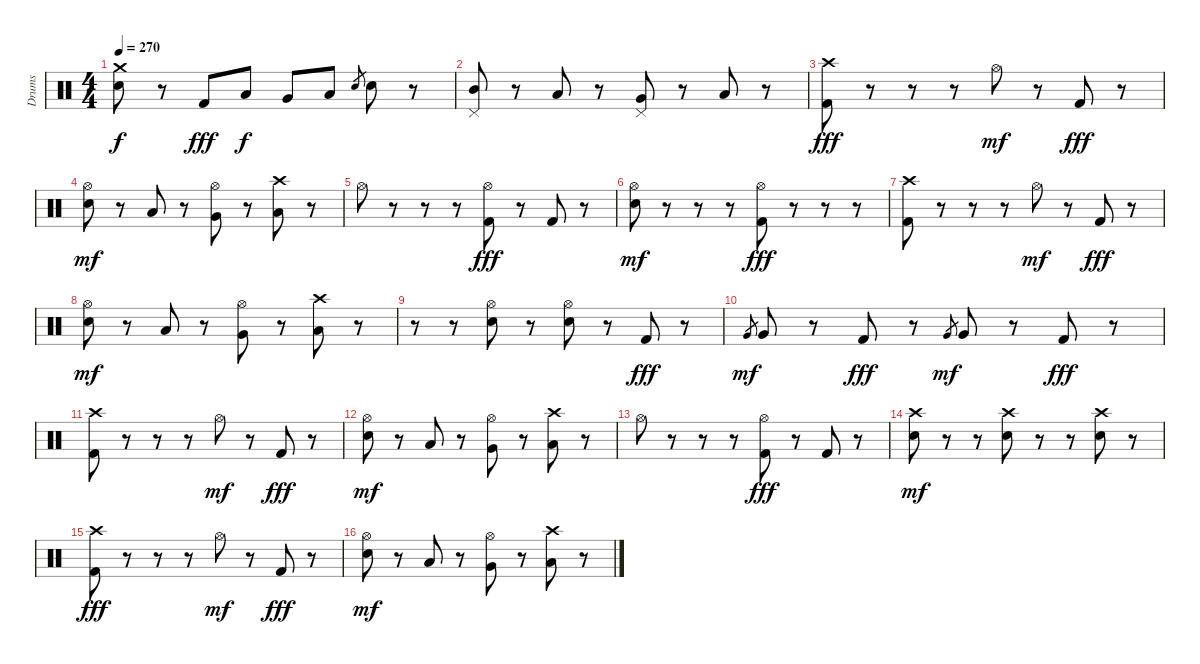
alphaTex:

\track ("Drums" "Drums") {instrument percussion}
\staff {score}
\articulation defaults
\ts (4 4)
\tempo 270
\clef neutral
\ks c
("Crash medium (hit)" "Electric Snare (hit)").8{dy f} r.8 "Kick (hit) 2".8{dy fff} "Low Tom (hit)".8{dy f} "Very Low Tom (hit)".8 "Low Floor Tom (hit)".8 "Electric Snare (hit)".8{gr} "Electric Snare (hit)".8 r.8 |
("Pedal Hi-Hat (hit)" "Mid Tom (hit)").8 r.8 "Low Tom (hit)".8 r.8 ("Pedal Hi-Hat (hit)" "Very Low Tom (hit)").8 r.8 "Low Floor Tom (hit)".8 r.8 |
("Crash high (hit)" "Kick (hit) 2").8{dy fff} r.8 r.8 r.8 "Hi-Hat (open)".8{dy mf} r.8 "Kick (hit) 2".8{dy fff} r.8 |
("Hi-Hat (open)" "Electric Snare (hit)").8{dy mf} r.8 "Low Tom (hit)".8 r.8 ("Hi-Hat (open)" "Very Low Tom (hit)").8 r.8 ("Crash high (hit)" "Low Floor Tom (hit)").8 r.8 |
"Hi-Hat (open)".8 r.8 r.8 r.8 ("Hi-Hat (open)" "Kick (hit) 2").8{dy fff} r.8 "Kick (hit) 2".8 r.8 |
("Hi-Hat (open)" "Electric Snare (hit)").8{dy mf} r.8 r.8 r.8 ("Hi-Hat (open)" "Kick (hit) 2").8{dy fff} r.8 r.8 r.8 |
("Crash high (hit)" "Kick (hit) 2").8 r.8 r.8 r.8 "Hi-Hat (open)".8{dy mf} r.8 "Kick (hit) 2".8{dy fff} r.8 |
("Hi-Hat (open)" "Electric Snare (hit)").8{dy mf} r.8 "Low Tom (hit)".8 r.8 ("Hi-Hat (open)" "Very Low Tom (hit)").8 r.8 ("Crash high (hit)" "Low Floor Tom (hit)").8 r.8 |
r.8 r.8 ("Hi-Hat (open)" "Electric Snare (hit)").8 r.8 ("Hi-Hat (open)" "Electric Snare (hit)").8 r.8 "Kick (hit) 2".8{dy fff} r.8 |
"Very Low Tom (hit)".8{gr dy mf} "Very Low Tom (hit)".8 r.8 "Kick (hit) 2".8{dy fff} r.8 "Very Low Tom (hit)".8{gr dy mf} "Very Low Tom (hit)".8 r.8 "Kick (hit) 2".8{dy fff} r.8 |
("Crash high (hit)" "Kick (hit) 2").8 r.8 r.8 r.8 "Hi-Hat (open)".8{dy mf} r.8 "Kick (hit) 2".8{dy fff} r.8 |
("Hi-Hat (open)" "Electric Snare (hit)").8{dy mf} r.8 "Low Tom (hit)".8 r.8 ("Hi-Hat (open)" "Very Low Tom (hit)").8 r.8 ("Crash high (hit)" "Low Floor Tom (hit)").8 r.8 |
"Hi-Hat (open)".8 r.8 r.8 r.8 ("Hi-Hat (open)" "Kick (hit) 2").8{dy fff} r.8 "Kick (hit) 2".8 r.8 |
("Crash high (hit)" "Electric Snare (hit)").8{dy mf} r.8 r.8 ("Crash high (hit)" "Electric Snare (hit)").8 r.8 r.8 ("Crash high (hit)" "Electric Snare (hit)").8 r.8 |
("Crash high (hit)" "Kick (hit) 2").8{dy fff} r.8 r.8 r.8 "Hi-Hat (open)".8{dy mf} r.8 "Kick (hit) 2".8{dy fff} r.8 |
("Hi-Hat (open)" "Electric Snare (hit)").8{dy mf} r.8 "Low Tom (hit)".8 r.8 ("Hi-Hat (open)" "Very Low Tom (hit)").8 r.8 ("Crash high (hit)" "Low Floor Tom (hit)").8 r.8
